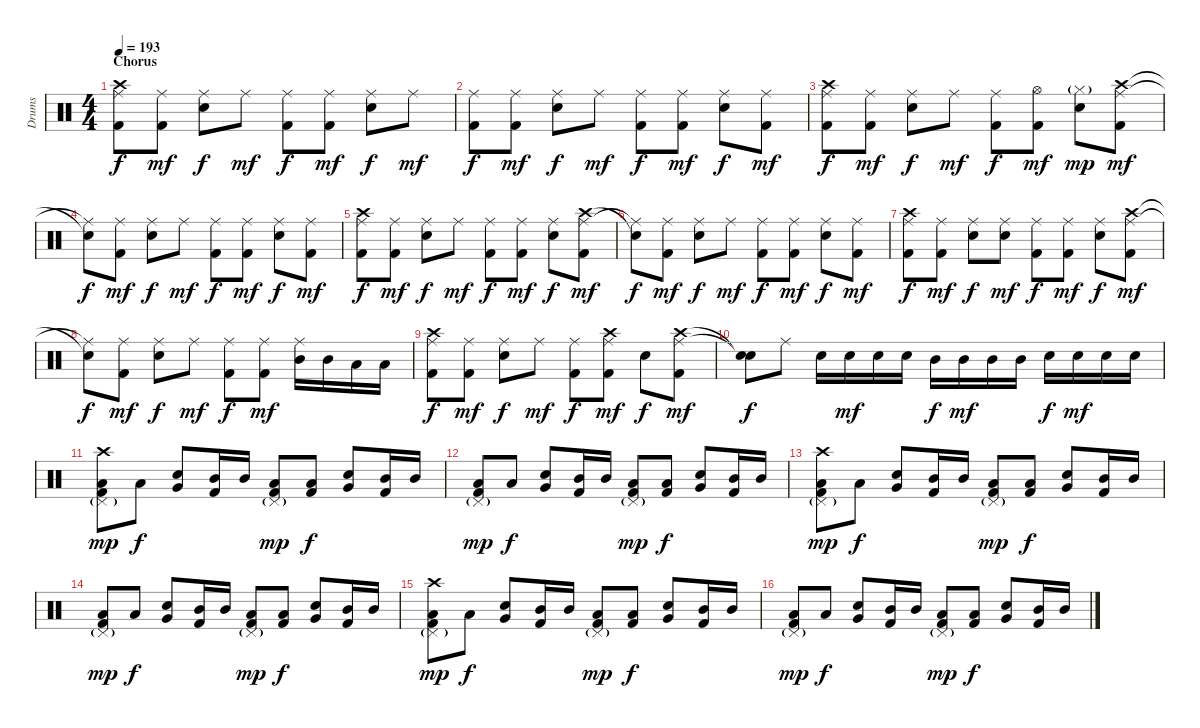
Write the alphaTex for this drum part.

\track ("Drums" "Drums") {instrument percussion}
\staff {score}
\articulation defaults
\ts (4 4)
\section ("" "Chorus")
\tempo 193
\clef neutral
\ks c
("Crash high (hit)" "Ride (middle)" "Kick (hit) 2").8{dy f} ("Ride (middle)" "Kick (hit) 2").8{dy mf} ("Ride (middle)" "Electric Snare (hit)").8{dy f} "Ride (middle)".8{dy mf} ("Ride (middle)" "Kick (hit) 2").8{dy f} ("Ride (middle)" "Kick (hit) 2").8{dy mf} ("Ride (middle)" "Electric Snare (hit)").8{dy f} "Ride (middle)".8{dy mf} |
("Ride (middle)" "Kick (hit) 2").8{dy f} ("Ride (middle)" "Kick (hit) 2").8{dy mf} ("Ride (middle)" "Electric Snare (hit)").8{dy f} "Ride (middle)".8{dy mf} ("Ride (middle)" "Kick (hit) 2").8{dy f} ("Ride (middle)" "Kick (hit) 2").8{dy mf} ("Ride (middle)" "Electric Snare (hit)").8{dy f} ("Ride (middle)" "Kick (hit) 2").8{dy mf} |
("Crash high (hit)" "Ride (middle)" "Kick (hit) 2").8{dy f} ("Ride (middle)" "Kick (hit) 2").8{dy mf} ("Ride (middle)" "Electric Snare (hit)").8{dy f} "Ride (middle)".8{dy mf} ("Ride (middle)" "Kick (hit) 2").8{dy f} ("Hi-Hat (open)" "Kick (hit) 2").8{dy mf} ("Hi-Hat (closed)"{g} "Electric Snare (hit)").8{dy mp} ("Crash high (hit)" "Ride (middle)" "Kick (hit) 2").8{dy mf} |
("Snare (hit)"{t} "Ride (middle)"{t}).8{dy f} ("Ride (middle)" "Kick (hit) 2").8{dy mf} ("Ride (middle)" "Electric Snare (hit)").8{dy f} "Ride (middle)".8{dy mf} ("Ride (middle)" "Kick (hit) 2").8{dy f} ("Ride (middle)" "Kick (hit) 2").8{dy mf} ("Ride (middle)" "Electric Snare (hit)").8{dy f} ("Ride (middle)" "Kick (hit) 2").8{dy mf} |
("Crash high (hit)" "Ride (middle)" "Kick (hit) 2").8{dy f} ("Ride (middle)" "Kick (hit) 2").8{dy mf} ("Ride (middle)" "Electric Snare (hit)").8{dy f} "Ride (middle)".8{dy mf} ("Ride (middle)" "Kick (hit) 2").8{dy f} ("Ride (middle)" "Kick (hit) 2").8{dy mf} ("Ride (middle)" "Electric Snare (hit)").8{dy f} ("Crash high (hit)" "Ride (middle)" "Kick (hit) 2").8{dy mf} |
("Snare (hit)"{t} "Ride (middle)"{t}).8{dy f} ("Ride (middle)" "Kick (hit) 2").8{dy mf} ("Ride (middle)" "Electric Snare (hit)").8{dy f} "Ride (middle)".8{dy mf} ("Ride (middle)" "Kick (hit) 2").8{dy f} ("Ride (middle)" "Kick (hit) 2").8{dy mf} ("Ride (middle)" "Electric Snare (hit)").8{dy f} ("Ride (middle)" "Kick (hit) 2").8{dy mf} |
("Crash high (hit)" "Ride (middle)" "Kick (hit) 2").8{dy f} ("Ride (middle)" "Kick (hit) 2").8{dy mf} ("Ride (middle)" "Electric Snare (hit)").8{dy f} ("Ride (middle)" "Electric Snare (hit)").8{dy mf} ("Ride (middle)" "Kick (hit) 2").8{dy f} ("Ride (middle)" "Kick (hit) 2").8{dy mf} ("Ride (middle)" "Electric Snare (hit)").8{dy f} ("Crash high (hit)" "Ride (middle)" "Kick (hit) 2").8{dy mf} |
("Snare (hit)"{t} "Ride (middle)"{t}).8{dy f} ("Ride (middle)" "Kick (hit) 2").8{dy mf} ("Ride (middle)" "Electric Snare (hit)").8{dy f} "Ride (middle)".8{dy mf} ("Ride (middle)" "Kick (hit) 2").8{dy f} ("Ride (middle)" "Kick (hit) 2").8{dy mf} ("Ride (middle)" "Mid Tom (hit)").16 "Mid Tom (hit)".16 "Low Tom (hit)".16 "Low Tom (hit)".16 |
("Crash high (hit)" "Ride (middle)" "Kick (hit) 2").8{dy f} ("Ride (middle)" "Kick (hit) 2").8{dy mf} ("Ride (middle)" "Electric Snare (hit)").8{dy f} "Ride (middle)".8{dy mf} ("Ride (middle)" "Kick (hit) 2").8{dy f} ("Crash high (hit)" "Ride (middle)" "Kick (hit) 2").8{dy mf} "Electric Snare (hit)".8{dy f} ("Crash high (hit)" "Ride (middle)" "Kick (hit) 2").8{dy mf} |
("Snare (hit)"{t} "Snare (hit)"{t}).8{dy f} "Ride (middle)".8 "Electric Snare (hit)".16 "Electric Snare (hit)".16{dy mf} "Electric Snare (hit)".16 "Electric Snare (hit)".16 "Mid Tom (hit)".16{dy f} "Mid Tom (hit)".16{dy mf} "Mid Tom (hit)".16 "Mid Tom (hit)".16 "Electric Snare (hit)".16{dy f} "Electric Snare (hit)".16{dy mf} "Electric Snare (hit)".16 "Electric Snare (hit)".16 |
("Pedal Hi-Hat (hit)"{g} "Crash high (hit)" "Low Tom (hit)" "Kick (hit) 2").8{dy mp} "Low Tom (hit)".8{dy f} ("Very Low Tom (hit)" "Electric Snare (hit)").8 ("Mid Tom (hit)" "Kick (hit) 2").16 "Mid Tom (hit)".16 ("Pedal Hi-Hat (hit)"{g} "Low Tom (hit)" "Kick (hit) 2").8{dy mp} ("Low Tom (hit)" "Kick (hit) 2").8{dy f} ("Very Low Tom (hit)" "Electric Snare (hit)").8 ("Mid Tom (hit)" "Kick (hit) 2").16 "Mid Tom (hit)".16 |
("Pedal Hi-Hat (hit)"{g} "Low Tom (hit)" "Kick (hit) 2").8{dy mp} "Low Tom (hit)".8{dy f} ("Very Low Tom (hit)" "Electric Snare (hit)").8 ("Mid Tom (hit)" "Kick (hit) 2").16 "Mid Tom (hit)".16 ("Pedal Hi-Hat (hit)"{g} "Low Tom (hit)" "Kick (hit) 2").8{dy mp} ("Low Tom (hit)" "Kick (hit) 2").8{dy f} ("Very Low Tom (hit)" "Electric Snare (hit)").8 ("Mid Tom (hit)" "Kick (hit) 2").16 "Mid Tom (hit)".16 |
("Pedal Hi-Hat (hit)"{g} "Crash high (hit)" "Low Tom (hit)" "Kick (hit) 2").8{dy mp} "Low Tom (hit)".8{dy f} ("Very Low Tom (hit)" "Electric Snare (hit)").8 ("Mid Tom (hit)" "Kick (hit) 2").16 "Mid Tom (hit)".16 ("Pedal Hi-Hat (hit)"{g} "Low Tom (hit)" "Kick (hit) 2").8{dy mp} ("Low Tom (hit)" "Kick (hit) 2").8{dy f} ("Very Low Tom (hit)" "Electric Snare (hit)").8 ("Mid Tom (hit)" "Kick (hit) 2").16 "Mid Tom (hit)".16 |
("Pedal Hi-Hat (hit)"{g} "Low Tom (hit)" "Kick (hit) 2").8{dy mp} "Low Tom (hit)".8{dy f} ("Very Low Tom (hit)" "Electric Snare (hit)").8 ("Mid Tom (hit)" "Kick (hit) 2").16 "Mid Tom (hit)".16 ("Pedal Hi-Hat (hit)"{g} "Low Tom (hit)" "Kick (hit) 2").8{dy mp} ("Low Tom (hit)" "Kick (hit) 2").8{dy f} ("Very Low Tom (hit)" "Electric Snare (hit)").8 ("Mid Tom (hit)" "Kick (hit) 2").16 "Mid Tom (hit)".16 |
("Pedal Hi-Hat (hit)"{g} "Crash high (hit)" "Low Tom (hit)" "Kick (hit) 2").8{dy mp} "Low Tom (hit)".8{dy f} ("Very Low Tom (hit)" "Electric Snare (hit)").8 ("Mid Tom (hit)" "Kick (hit) 2").16 "Mid Tom (hit)".16 ("Pedal Hi-Hat (hit)"{g} "Low Tom (hit)" "Kick (hit) 2").8{dy mp} ("Low Tom (hit)" "Kick (hit) 2").8{dy f} ("Very Low Tom (hit)" "Electric Snare (hit)").8 ("Mid Tom (hit)" "Kick (hit) 2").16 "Mid Tom (hit)".16 |
("Pedal Hi-Hat (hit)"{g} "Low Tom (hit)" "Kick (hit) 2").8{dy mp} "Low Tom (hit)".8{dy f} ("Very Low Tom (hit)" "Electric Snare (hit)").8 ("Mid Tom (hit)" "Kick (hit) 2").16 "Mid Tom (hit)".16 ("Pedal Hi-Hat (hit)"{g} "Low Tom (hit)" "Kick (hit) 2").8{dy mp} ("Low Tom (hit)" "Kick (hit) 2").8{dy f} ("Very Low Tom (hit)" "Electric Snare (hit)").8 ("Mid Tom (hit)" "Kick (hit) 2").16 "Mid Tom (hit)".16
